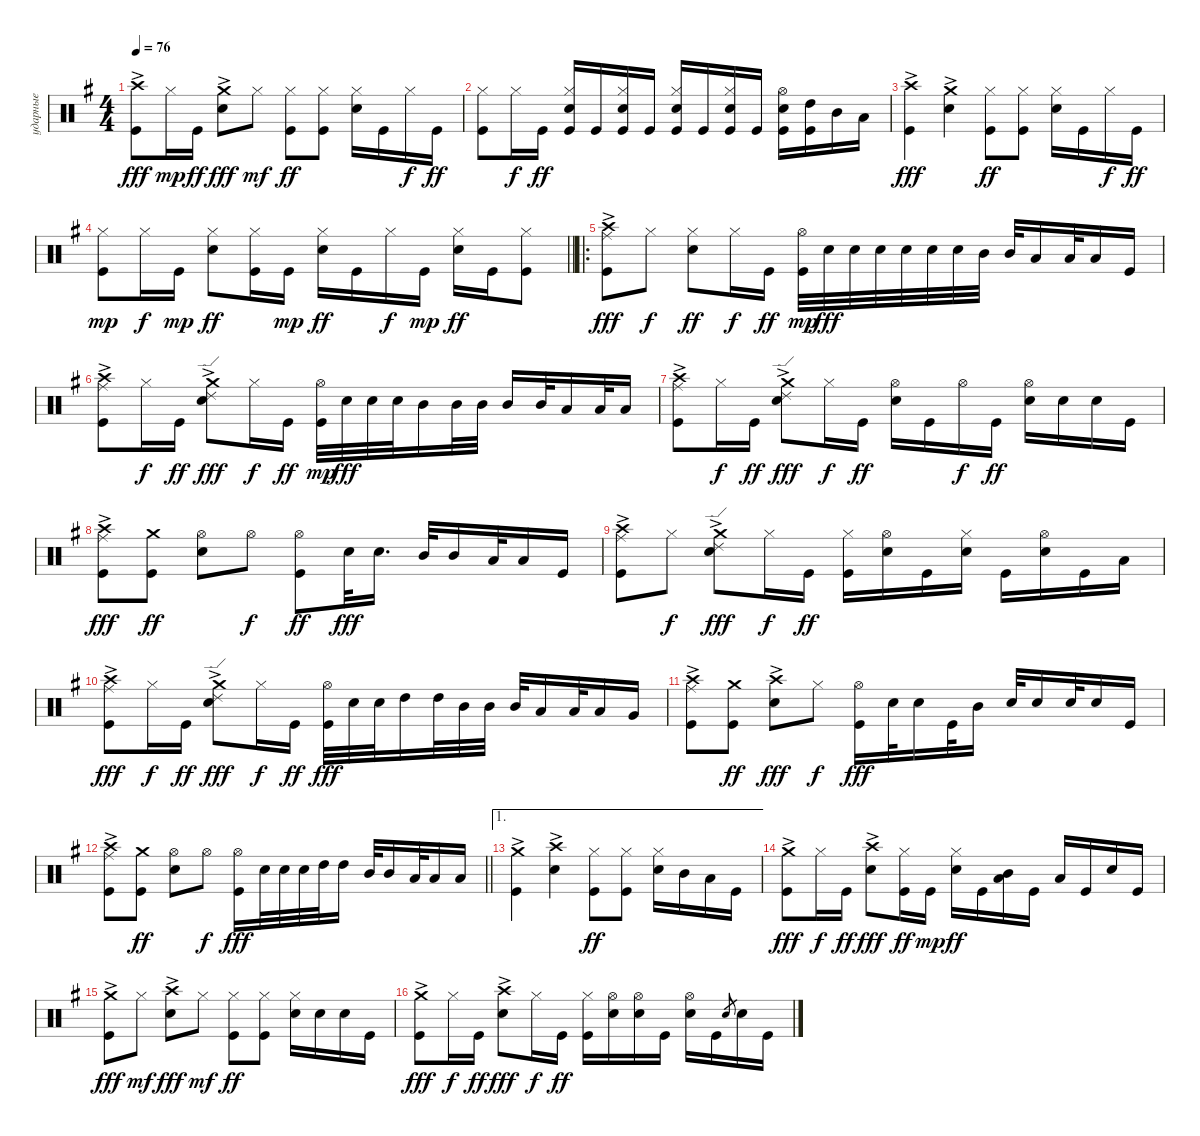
\track ("ударные" "ударные") {instrument percussion}
\staff {score}
\articulation defaults
\ts (4 4)
\section ("" "")
\tempo 76
\clef neutral
\ks eminor
("Kick (hit)" "Crash high (hit)"{ac}).8{dy fff} "Hi-Hat (closed)".16{dy mp} "Kick (hit)".16{dy ff} ("Snare (hit) 2" "Crash medium (hit)"{ac}).8{dy fff} "Hi-Hat (closed)".8{dy mf} ("Kick (hit)" "Hi-Hat (closed)").8{dy ff} ("Kick (hit)" "Hi-Hat (closed)").8 ("Snare (hit) 2" "Hi-Hat (closed)").16 "Kick (hit)".16 "Hi-Hat (closed)".16{dy f} "Kick (hit)".16{dy ff} |
("Kick (hit)" "Hi-Hat (closed)").8 "Hi-Hat (closed)".16{dy f} "Kick (hit)".16{dy ff} ("Snare (hit) 2" "Hi-Hat (closed)" "Kick (hit)").16 "Kick (hit)".16 ("Hi-Hat (closed)" "Kick (hit)" "Snare (hit) 2").16 "Kick (hit)".16 ("Snare (hit) 2" "Hi-Hat (closed)" "Kick (hit)").16 "Kick (hit)".16 ("Hi-Hat (closed)" "Kick (hit)" "Snare (hit) 2").16 "Kick (hit)".16 ("Snare (hit) 2" "Hi-Hat (open)" "Kick (hit)").16 ("High Tom (hit)" "Kick (hit)").16 "Mid Tom (hit)".16 "Low Tom (hit)".16 |
("Kick (hit)" "Crash high (hit)"{ac}).4{dy fff} ("Snare (hit) 2" "Crash medium (hit)"{ac}).4 ("Kick (hit)" "Hi-Hat (closed)").8{dy ff} ("Kick (hit)" "Hi-Hat (closed)").8 ("Snare (hit) 2" "Hi-Hat (closed)").16 "Kick (hit)".16 "Hi-Hat (closed)".16{dy f} "Kick (hit)".16{dy ff} |
\barLineRight lightlight
("Kick (hit)" "Hi-Hat (closed)").8{dy mp} "Hi-Hat (closed)".16{dy f} "Kick (hit)".16{dy mp} ("Snare (hit) 2" "Hi-Hat (closed)").8{dy ff} ("Hi-Hat (closed)" "Kick (hit)").16 "Kick (hit)".16{dy mp} ("Snare (hit) 2" "Hi-Hat (closed)").16{dy ff} "Kick (hit)".16 "Hi-Hat (closed)".16{dy f} "Kick (hit)".16{dy mp} ("Snare (hit) 2" "Hi-Hat (closed)").16{dy ff} "Kick (hit)".16 ("Hi-Hat (closed)" "Kick (hit)").8 |
\ro
\section ("" "")
("Kick (hit)" "Crash high (hit)"{ac} "Ride (middle)").8{dy fff} "Hi-Hat (closed)".8{dy f} ("Snare (hit) 2" "Hi-Hat (closed)").8{dy ff} "Hi-Hat (closed)".16{dy f} "Kick (hit)".16{dy ff} ("Kick (hit)" "Hi-Hat (open)").32{dy mp} "Snare (hit) 2".32{dy fff} "Snare (hit) 2".32 "Snare (hit) 2".32 "Snare (hit) 2".32 "Snare (hit) 2".32 "Snare (hit) 2".32 "Mid Tom (hit)".32 "Mid Tom (hit)".32 "Low Tom (hit)".16 "Low Tom (hit)".32 "Low Tom (hit)".16 "Kick (hit)".16 |
("Kick (hit)" "Crash high (hit)"{ac} "Ride (middle)").8 "Hi-Hat (closed)".16{dy f} "Kick (hit)".16{dy ff} ("Snare (hit) 2"{ac} "Crash medium (hit)"{ac} "Ride (edge) 2"{ac}).8{dy fff} "Hi-Hat (closed)".16{dy f} "Kick (hit)".16{dy ff} ("Kick (hit)" "Hi-Hat (open)").32{dy mp} "Snare (hit) 2".32{dy fff} "Snare (hit) 2".32 "Snare (hit) 2".32 "Mid Tom (hit)".16 "Mid Tom (hit)".32 "Mid Tom (hit)".32 "Mid Tom (hit)".16 "Mid Tom (hit)".32 "Low Tom (hit)".16 "Low Tom (hit)".32 "Low Tom (hit)".16 |
("Kick (hit)" "Crash high (hit)"{ac} "Ride (middle)").8 "Hi-Hat (closed)".16{dy f} "Kick (hit)".16{dy ff} ("Snare (hit) 2"{ac} "Crash medium (hit)"{ac} "Ride (edge) 2"{ac}).8{dy fff} "Hi-Hat (closed)".16{dy f} "Kick (hit)".16{dy ff} ("Snare (hit) 2" "Hi-Hat (open)").16 "Kick (hit)".16 "Hi-Hat (open)".16{dy f} "Kick (hit)".16{dy ff} ("Snare (hit) 2" "Hi-Hat (open)").16 "Snare (hit) 2".16 "Snare (hit) 2".16 "Kick (hit)".16 |
("Kick (hit)" "Crash high (hit)"{ac} "Ride (middle)").8{dy fff} ("Kick (hit)" "Crash medium (hit)").8{dy ff} ("Snare (hit) 2" "Hi-Hat (open)").8 "Hi-Hat (open)".8{dy f} ("Kick (hit)" "Hi-Hat (open)").8{dy ff} "Snare (hit) 2".32{dy fff} "Snare (hit) 2".16{d} "Mid Tom (hit)".32 "Mid Tom (hit)".16 "Low Tom (hit)".32 "Low Tom (hit)".16 "Kick (hit)".16 |
("Kick (hit)" "Crash high (hit)"{ac} "Ride (middle)").8 "Hi-Hat (closed)".8{dy f} ("Snare (hit) 2"{ac} "Crash medium (hit)"{ac} "Ride (edge) 2"{ac}).8{dy fff} "Hi-Hat (closed)".16{dy f} "Kick (hit)".16{dy ff} ("Kick (hit)" "Hi-Hat (closed)").16 ("Hi-Hat (open)" "Snare (hit) 2").16 "Kick (hit)".16 ("Snare (hit) 2" "Hi-Hat (closed)").16 "Kick (hit)".16 ("Hi-Hat (open)" "Snare (hit) 2").16 "Kick (hit)".16 "Low Tom (hit)".16 |
("Kick (hit)" "Crash high (hit)"{ac} "Ride (middle)").8{dy fff} "Hi-Hat (closed)".16{dy f} "Kick (hit)".16{dy ff} ("Snare (hit) 2"{ac} "Crash medium (hit)"{ac} "Ride (edge) 2"{ac}).8{dy fff} "Hi-Hat (closed)".16{dy f} "Kick (hit)".16{dy ff} ("Kick (hit)" "Hi-Hat (open)").32{dy fff} "Snare (hit) 2".32 "Snare (hit) 2".32 "High Tom (hit)".16 "High Tom (hit)".32 "Mid Tom (hit)".32 "Mid Tom (hit)".32 "Mid Tom (hit)".32 "Low Tom (hit)".16 "Low Tom (hit)".32 "Low Tom (hit)".16 "Very Low Tom (hit)".16 |
("Kick (hit)" "Crash high (hit)"{ac} "Ride (middle)").8 ("Kick (hit)" "Crash medium (hit)").8{dy ff} ("Snare (hit) 2" "Crash high (hit)"{ac}).8{dy fff} "Hi-Hat (closed)".8{dy f} ("Kick (hit)" "Hi-Hat (open)").16{dy fff} "Snare (hit) 2".32 "Snare (hit) 2".16 "Kick (hit)".32 "Mid Tom (hit)".16 "Snare (hit) 2".32 "Snare (hit) 2".16 "Snare (hit) 2".32 "Snare (hit) 2".16 "Kick (hit)".16 |
\barLineRight lightlight
("Kick (hit)" "Crash high (hit)"{ac} "Ride (middle)").8 ("Kick (hit)" "Crash medium (hit)").8{dy ff} ("Snare (hit) 2" "Hi-Hat (open)").8 "Hi-Hat (open)".8{dy f} ("Kick (hit)" "Hi-Hat (open)").16{dy fff} "Snare (hit) 2".32 "Snare (hit) 2".32 "Snare (hit) 2".32 "High Tom (hit)".32 "High Tom (hit)".16 "Mid Tom (hit)".32 "Mid Tom (hit)".16 "Low Tom (hit)".32 "Low Tom (hit)".16 "Low Tom (hit)".16 |
\ae 1
("Kick (hit)" "Crash medium (hit)"{ac}).4 ("Snare (hit) 2" "Crash high (hit)"{ac}).4 ("Kick (hit)" "Hi-Hat (closed)").8{dy ff} ("Kick (hit)" "Hi-Hat (closed)").8 ("Snare (hit) 2" "Hi-Hat (closed)").16 "Mid Tom (hit)".16 "Low Tom (hit)".16 "Kick (hit)".16 |
("Kick (hit)" "Crash medium (hit)"{ac}).8{dy fff} "Hi-Hat (closed)".16{dy f} "Kick (hit)".16{dy ff} ("Snare (hit) 2" "Crash high (hit)"{ac}).8{dy fff} ("Hi-Hat (closed)" "Kick (hit)").16{dy ff} "Kick (hit)".16{dy mp} ("Snare (hit) 2" "Hi-Hat (closed)").16{dy ff} "Kick (hit)".16 ("Mid Tom (hit)" "Low Tom (hit)").16 "Kick (hit)".16 "Low Tom (hit)".16 "Kick (hit)".16 "Snare (hit) 2".16 "Kick (hit)".16 |
("Kick (hit)" "Crash medium (hit)"{ac}).8{dy fff} "Hi-Hat (closed)".8{dy mf} ("Snare (hit) 2" "Crash high (hit)"{ac}).8{dy fff} "Hi-Hat (closed)".8{dy mf} ("Kick (hit)" "Hi-Hat (closed)").8{dy ff} ("Kick (hit)" "Hi-Hat (closed)").8 ("Snare (hit) 2" "Hi-Hat (closed)").16 "Snare (hit) 2".16 "Snare (hit) 2".16 "Kick (hit)".16 |
("Kick (hit)" "Crash medium (hit)"{ac}).8{dy fff} "Hi-Hat (closed)".16{dy f} "Kick (hit)".16{dy ff} ("Snare (hit) 2" "Crash high (hit)"{ac}).8{dy fff} "Hi-Hat (closed)".16{dy f} "Kick (hit)".16{dy ff} ("Kick (hit)" "Hi-Hat (closed)").16 ("Snare (hit) 2" "Hi-Hat (open)").16 ("Snare (hit) 2" "Hi-Hat (open)").16 "Kick (hit)".16 ("Snare (hit) 2" "Hi-Hat (open)").16 "Kick (hit)".16 "Snare (hit) 2".8{gr} "Snare (hit) 2".16 "Kick (hit)".16
